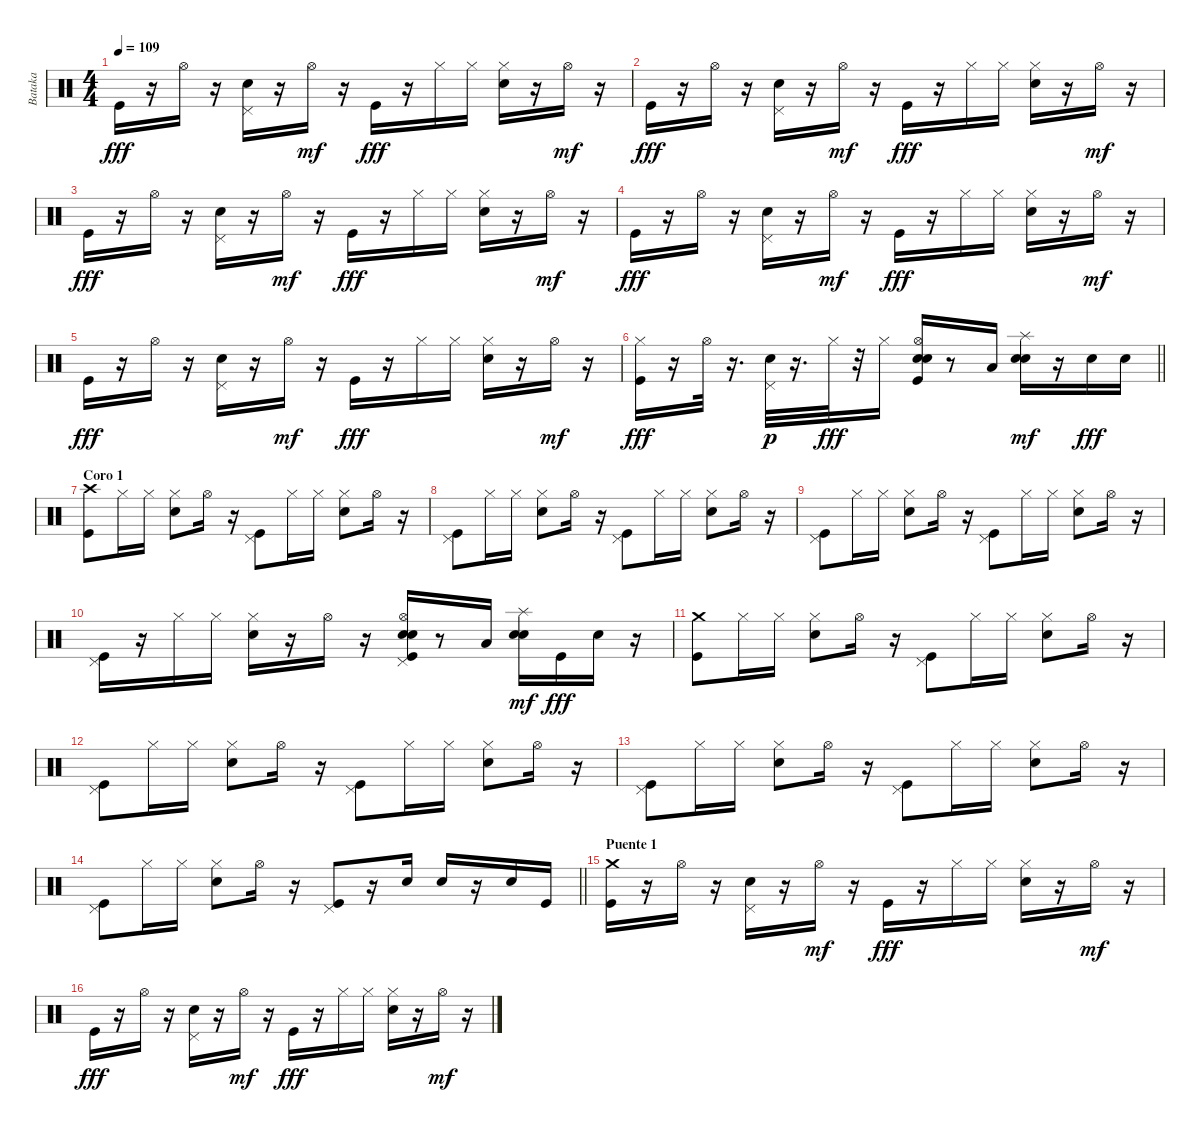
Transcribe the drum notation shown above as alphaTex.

\track ("Bataka" "Bataka") {instrument percussion}
\staff {score}
\articulation defaults
\ts (4 4)
\tempo 109
\clef neutral
\ks c "Kick (hit)".16{dy fff}
r.16 "Hi-Hat (open)".16 r.16 ("Snare (hit) 2" "Pedal Hi-Hat (hit)").16 r.16 "Hi-Hat (open)".16{dy mf} r.16 "Kick (hit)".16{dy fff} r.16 "Hi-Hat (closed)".16 "Hi-Hat (closed)".16 ("Snare (hit) 2" "Hi-Hat (closed)").16 r.16 "Hi-Hat (open)".16{dy mf} r.16 |
"Kick (hit)".16{dy fff} r.16 "Hi-Hat (open)".16 r.16 ("Snare (hit) 2" "Pedal Hi-Hat (hit)").16 r.16 "Hi-Hat (open)".16{dy mf} r.16 "Kick (hit)".16{dy fff} r.16 "Hi-Hat (closed)".16 "Hi-Hat (closed)".16 ("Snare (hit) 2" "Hi-Hat (closed)").16 r.16 "Hi-Hat (open)".16{dy mf} r.16 |
"Kick (hit)".16{dy fff} r.16 "Hi-Hat (open)".16 r.16 ("Snare (hit) 2" "Pedal Hi-Hat (hit)").16 r.16 "Hi-Hat (open)".16{dy mf} r.16 "Kick (hit)".16{dy fff} r.16 "Hi-Hat (closed)".16 "Hi-Hat (closed)".16 ("Snare (hit) 2" "Hi-Hat (closed)").16 r.16 "Hi-Hat (open)".16{dy mf} r.16 |
"Kick (hit)".16{dy fff} r.16 "Hi-Hat (open)".16 r.16 ("Snare (hit) 2" "Pedal Hi-Hat (hit)").16 r.16 "Hi-Hat (open)".16{dy mf} r.16 "Kick (hit)".16{dy fff} r.16 "Hi-Hat (closed)".16 "Hi-Hat (closed)".16 ("Snare (hit) 2" "Hi-Hat (closed)").16 r.16 "Hi-Hat (open)".16{dy mf} r.16 |
"Kick (hit)".16{dy fff} r.16 "Hi-Hat (open)".16 r.16 ("Snare (hit) 2" "Pedal Hi-Hat (hit)").16 r.16 "Hi-Hat (open)".16{dy mf} r.16 "Kick (hit)".16{dy fff} r.16 "Hi-Hat (closed)".16 "Hi-Hat (closed)".16 ("Snare (hit) 2" "Hi-Hat (closed)").16 r.16 "Hi-Hat (open)".16{dy mf} r.16 |
\barLineRight lightlight
("Kick (hit)" "Hi-Hat (closed)").16{dy fff} r.16 "Hi-Hat (open)".32 r.16{d} ("Snare (hit) 2" "Pedal Hi-Hat (hit)").32{dy p} r.16{d} "Hi-Hat (closed)".32{dy fff} r.32 "Hi-Hat (closed)".16 ("Snare (hit) 2" "Kick (hit)" "Snare (hit) 2" "Hi-Hat (open)").16 r.8 "Low Floor Tom (hit)".16 ("Snare (hit) 2" "Snare (hit) 2" "Splash (hit)").16{dy mf} r.16 "Snare (hit) 2".16{dy fff} "Snare (hit) 2".16 |
\section ("" "Coro 1")
("Kick (hit)" "Crash high (hit)").8 "Hi-Hat (closed)".16 "Hi-Hat (closed)".16 ("Snare (hit) 2" "Hi-Hat (closed)").8 "Hi-Hat (open)".16 r.16 ("Kick (hit)" "Pedal Hi-Hat (hit)").8 "Hi-Hat (closed)".16 "Hi-Hat (closed)".16 ("Snare (hit) 2" "Hi-Hat (closed)").8 "Hi-Hat (open)".16 r.16 |
("Kick (hit)" "Pedal Hi-Hat (hit)").8 "Hi-Hat (closed)".16 "Hi-Hat (closed)".16 ("Snare (hit) 2" "Hi-Hat (closed)").8 "Hi-Hat (open)".16 r.16 ("Kick (hit)" "Pedal Hi-Hat (hit)").8 "Hi-Hat (closed)".16 "Hi-Hat (closed)".16 ("Snare (hit) 2" "Hi-Hat (closed)").8 "Hi-Hat (open)".16 r.16 |
("Kick (hit)" "Pedal Hi-Hat (hit)").8 "Hi-Hat (closed)".16 "Hi-Hat (closed)".16 ("Snare (hit) 2" "Hi-Hat (closed)").8 "Hi-Hat (open)".16 r.16 ("Kick (hit)" "Pedal Hi-Hat (hit)").8 "Hi-Hat (closed)".16 "Hi-Hat (closed)".16 ("Snare (hit) 2" "Hi-Hat (closed)").8 "Hi-Hat (open)".16 r.16 |
("Kick (hit)" "Pedal Hi-Hat (hit)").16 r.16 "Hi-Hat (closed)".16 "Hi-Hat (closed)".16 ("Snare (hit) 2" "Hi-Hat (closed)").16 r.16 "Hi-Hat (open)".16 r.16 ("Snare (hit) 2" "Kick (hit)" "Snare (hit) 2" "Hi-Hat (open)" "Pedal Hi-Hat (hit)").16 r.8 "Low Floor Tom (hit)".16 ("Snare (hit) 2" "Snare (hit) 2" "Splash (hit)").16{dy mf} "Kick (hit)".16{dy fff} "Snare (hit) 2".16 r.16 |
("Kick (hit)" "Crash medium (hit)").8 "Hi-Hat (closed)".16 "Hi-Hat (closed)".16 ("Snare (hit) 2" "Hi-Hat (closed)").8 "Hi-Hat (open)".16 r.16 ("Kick (hit)" "Pedal Hi-Hat (hit)").8 "Hi-Hat (closed)".16 "Hi-Hat (closed)".16 ("Snare (hit) 2" "Hi-Hat (closed)").8 "Hi-Hat (open)".16 r.16 |
("Kick (hit)" "Pedal Hi-Hat (hit)").8 "Hi-Hat (closed)".16 "Hi-Hat (closed)".16 ("Snare (hit) 2" "Hi-Hat (closed)").8 "Hi-Hat (open)".16 r.16 ("Kick (hit)" "Pedal Hi-Hat (hit)").8 "Hi-Hat (closed)".16 "Hi-Hat (closed)".16 ("Snare (hit) 2" "Hi-Hat (closed)").8 "Hi-Hat (open)".16 r.16 |
("Kick (hit)" "Pedal Hi-Hat (hit)").8 "Hi-Hat (closed)".16 "Hi-Hat (closed)".16 ("Snare (hit) 2" "Hi-Hat (closed)").8 "Hi-Hat (open)".16 r.16 ("Kick (hit)" "Pedal Hi-Hat (hit)").8 "Hi-Hat (closed)".16 "Hi-Hat (closed)".16 ("Snare (hit) 2" "Hi-Hat (closed)").8 "Hi-Hat (open)".16 r.16 |
\barLineRight lightlight
("Kick (hit)" "Pedal Hi-Hat (hit)").8 "Hi-Hat (closed)".16 "Hi-Hat (closed)".16 ("Snare (hit) 2" "Hi-Hat (closed)").8 "Hi-Hat (open)".16 r.16 ("Kick (hit)" "Pedal Hi-Hat (hit)").8 r.16 "Snare (hit) 2".16 "Snare (hit) 2".16 r.16 "Snare (hit) 2".16 "Kick (hit)".16 |
\section ("" "Puente 1")
("Kick (hit)" "Crash medium (hit)").16 r.16 "Hi-Hat (open)".16 r.16 ("Pedal Hi-Hat (hit)" "Snare (hit) 2").16 r.16 "Hi-Hat (open)".16{dy mf} r.16 "Kick (hit)".16{dy fff} r.16 "Hi-Hat (closed)".16 "Hi-Hat (closed)".16 ("Hi-Hat (closed)" "Snare (hit) 2").16 r.16 "Hi-Hat (open)".16{dy mf} r.16 |
"Kick (hit)".16{dy fff} r.16 "Hi-Hat (open)".16 r.16 ("Snare (hit) 2" "Pedal Hi-Hat (hit)").16 r.16 "Hi-Hat (open)".16{dy mf} r.16 "Kick (hit)".16{dy fff} r.16 "Hi-Hat (closed)".16 "Hi-Hat (closed)".16 ("Snare (hit) 2" "Hi-Hat (closed)").16 r.16 "Hi-Hat (open)".16{dy mf} r.16
